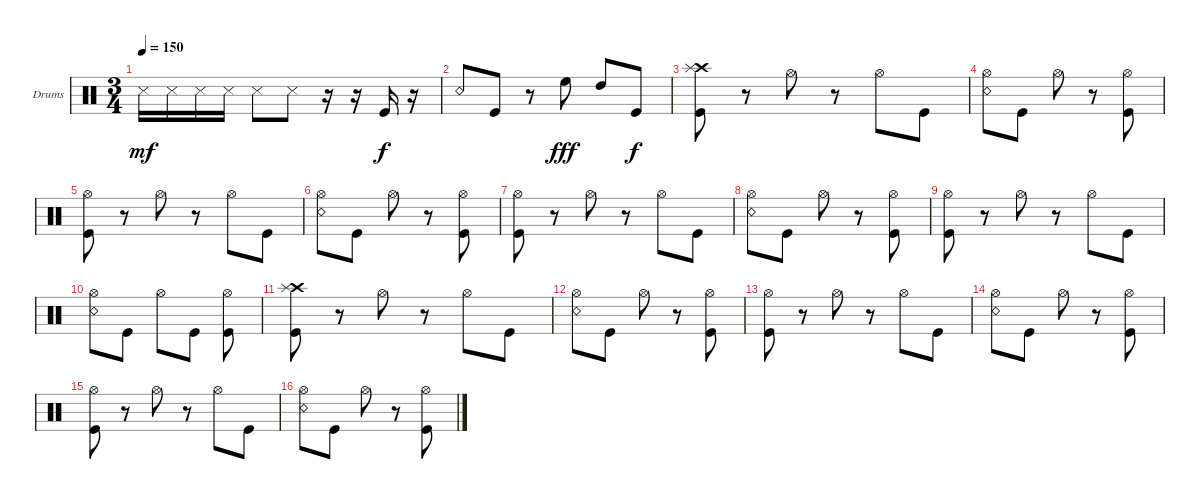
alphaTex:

\defaultSystemsLayout 4
\bracketExtendMode groupsimilarinstruments
\firstSystemTrackNameOrientation horizontal
\otherSystemsTrackNameOrientation horizontal
\track ("Scott" "Drums") {mute instrument percussion}
\staff {score}
\articulation defaults
\ts (3 4)
\tempo 150
\clef neutral
\scale
0.333333
\ks c "Snare (side stick) 3".16{dy mf} "Snare (side stick) 3".16 "Snare (side stick) 3".16 "Snare (side stick) 3".16 "Snare (side stick) 3".8 "Snare (side stick) 3".8
r.16 r.16 "Kick (hit)".16{dy f} r.16 |
\scale
0.333333 "Snare (rim shot)".8 "Kick (hit)".8 r.8 "High Floor Tom (hit)".8{dy fff} "High Tom (hit)".8 "Kick (hit)".8{dy f} |
\scale
0.333333 ("Kick (hit)" "Crash high (hit)" "Splash (hit)").8 r.8 "Hi-Hat (open)".8 r.8 "Hi-Hat (open)".8 "Kick (hit)".8 |
\scale
0.333333 ("Snare (rim shot)" "Hi-Hat (open)").8 "Kick (hit)".8 "Hi-Hat (open)".8 r.8 ("Kick (hit)" "Hi-Hat (open)").8 |
\scale
0.333333 ("Kick (hit)" "Hi-Hat (open)").8 r.8 "Hi-Hat (open)".8 r.8 "Hi-Hat (open)".8 "Kick (hit)".8 |
\scale
0.333333 ("Snare (rim shot)" "Hi-Hat (open)").8 "Kick (hit)".8 "Hi-Hat (open)".8 r.8 ("Kick (hit)" "Hi-Hat (open)").8 |
\scale
0.333333 ("Kick (hit)" "Hi-Hat (open)").8 r.8 "Hi-Hat (open)".8 r.8 "Hi-Hat (open)".8 "Kick (hit)".8 |
\scale
0.333333 ("Snare (rim shot)" "Hi-Hat (open)").8 "Kick (hit)".8 "Hi-Hat (open)".8 r.8 ("Kick (hit)" "Hi-Hat (open)").8 |
\scale
0.333333 ("Kick (hit)" "Hi-Hat (open)").8 r.8 "Hi-Hat (open)".8 r.8 "Hi-Hat (open)".8 "Kick (hit)".8 |
\scale
0.333333 ("Snare (rim shot)" "Hi-Hat (open)").8 "Kick (hit)".8 "Hi-Hat (open)".8 "Kick (hit)".8 ("Kick (hit)" "Hi-Hat (open)").8 |
\scale
0.333333 ("Kick (hit)" "Crash high (hit)" "Splash (hit)").8 r.8 "Hi-Hat (open)".8 r.8 "Hi-Hat (open)".8 "Kick (hit)".8 |
\scale
0.333333 ("Snare (rim shot)" "Hi-Hat (open)").8 "Kick (hit)".8 "Hi-Hat (open)".8 r.8 ("Kick (hit)" "Hi-Hat (open)").8 |
\scale
0.333333 ("Kick (hit)" "Hi-Hat (open)").8 r.8 "Hi-Hat (open)".8 r.8 "Hi-Hat (open)".8 "Kick (hit)".8 |
\scale
0.333333 ("Snare (rim shot)" "Hi-Hat (open)").8 "Kick (hit)".8 "Hi-Hat (open)".8 r.8 ("Kick (hit)" "Hi-Hat (open)").8 |
\scale
0.333333 ("Kick (hit)" "Hi-Hat (open)").8 r.8 "Hi-Hat (open)".8 r.8 "Hi-Hat (open)".8 "Kick (hit)".8 |
\scale
0.333333 ("Snare (rim shot)" "Hi-Hat (open)").8 "Kick (hit)".8 "Hi-Hat (open)".8 r.8 ("Kick (hit)" "Hi-Hat (open)").8
